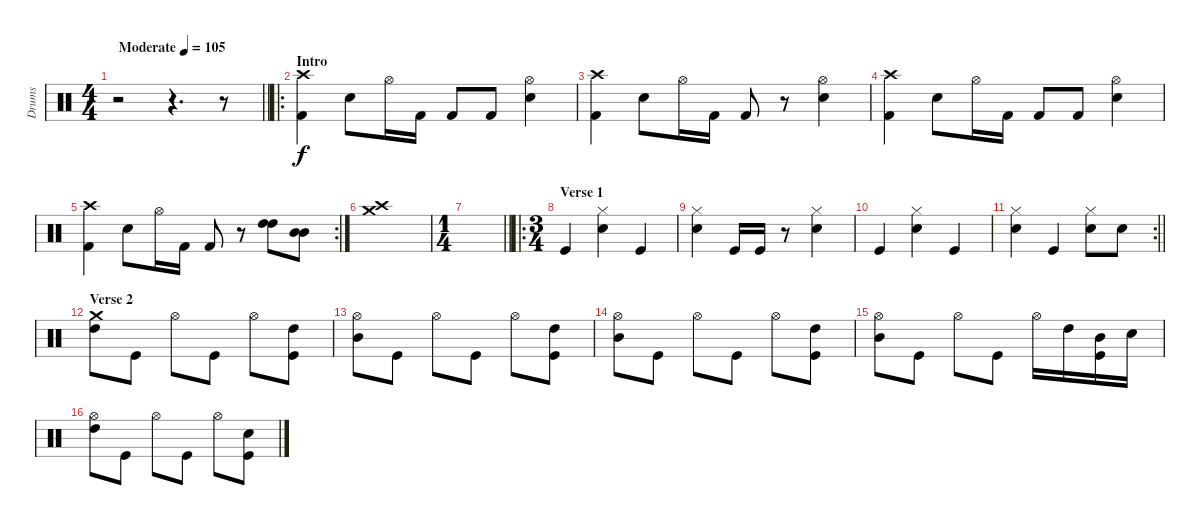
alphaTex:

\track ("Drums" "Drums") {instrument percussion}
\staff {score}
\articulation defaults
\ts (4 4)
\tempo (105 "Moderate")
\clef neutral
\barLineRight lightlight
\ks c
r.2{dy f} r.4{d} r.8 |
\ro
\section ("" "Intro")
("Crash high (hit)" "Kick (hit) 2").4 "Snare (hit) 2".8 "Hi-Hat (open)".16 "Kick (hit) 2".16 "Kick (hit) 2".8 "Kick (hit) 2".8 ("Snare (hit) 2" "Hi-Hat (open)").4 |
("Crash high (hit)" "Kick (hit) 2").4 "Snare (hit) 2".8 "Hi-Hat (open)".16 "Kick (hit) 2".16 "Kick (hit) 2".8 r.8 ("Snare (hit) 2" "Hi-Hat (open)").4 |
("Crash high (hit)" "Kick (hit) 2").4 "Snare (hit) 2".8 "Hi-Hat (open)".16 "Kick (hit) 2".16 "Kick (hit) 2".8 "Kick (hit) 2".8 ("Snare (hit) 2" "Hi-Hat (open)").4 |
\rc 2
("Crash high (hit)" "Kick (hit) 2").4 "Snare (hit) 2".8 "Hi-Hat (open)".16 "Kick (hit) 2".16 "Kick (hit) 2".8 r.8 ("High Tom (hit)" "High Tom (hit)").8 ("Mid Tom (hit)" "Mid Tom (hit)").8 |
("Crash high (hit)" "Crash medium (hit)").1 |
\ts (1 4)
\barLineRight lightlight
|
\ro
\ts (3 4)
\section ("" "Verse 1")
"Kick (hit)".4 ("Snare (hit) 2" "Hi-Hat (closed)").4 "Kick (hit)".4 |
("Snare (hit) 2" "Hi-Hat (closed)").4 "Kick (hit)".16 "Kick (hit)".16 r.8 ("Snare (hit) 2" "Hi-Hat (closed)").4 |
"Kick (hit)".4 ("Snare (hit) 2" "Hi-Hat (closed)").4 "Kick (hit)".4 |
\rc 2
\barLineRight lightlight
("Snare (hit) 2" "Hi-Hat (closed)").4 "Kick (hit)".4 ("Snare (hit) 2" "Hi-Hat (closed)").8 "Snare (hit) 2".8 |
\section ("" "Verse 2")
("High Tom (hit)" "Crash medium (hit)").8 "Kick (hit)".8 "Hi-Hat (open)".8 "Kick (hit)".8 "Hi-Hat (open)".8 ("High Tom (hit)" "Kick (hit)").8 |
("Hi-Hat (open)" "Mid Tom (hit)").8 "Kick (hit)".8 "Hi-Hat (open)".8 "Kick (hit)".8 "Hi-Hat (open)".8 ("High Tom (hit)" "Kick (hit)").8 |
("Hi-Hat (open)" "Mid Tom (hit)").8 "Kick (hit)".8 "Hi-Hat (open)".8 "Kick (hit)".8 "Hi-Hat (open)".8 ("Kick (hit)" "High Tom (hit)").8 |
("Hi-Hat (open)" "Mid Tom (hit)").8 "Kick (hit)".8 "Hi-Hat (open)".8 "Kick (hit)".8 "Hi-Hat (open)".16 "High Tom (hit)".16 ("Kick (hit)" "Mid Tom (hit)").16 "Snare (hit) 2".16 |
("High Tom (hit)" "Hi-Hat (open)").8 "Kick (hit)".8 "Hi-Hat (open)".8 "Kick (hit)".8 "Hi-Hat (open)".8 ("Snare (hit) 2" "Kick (hit)").8
